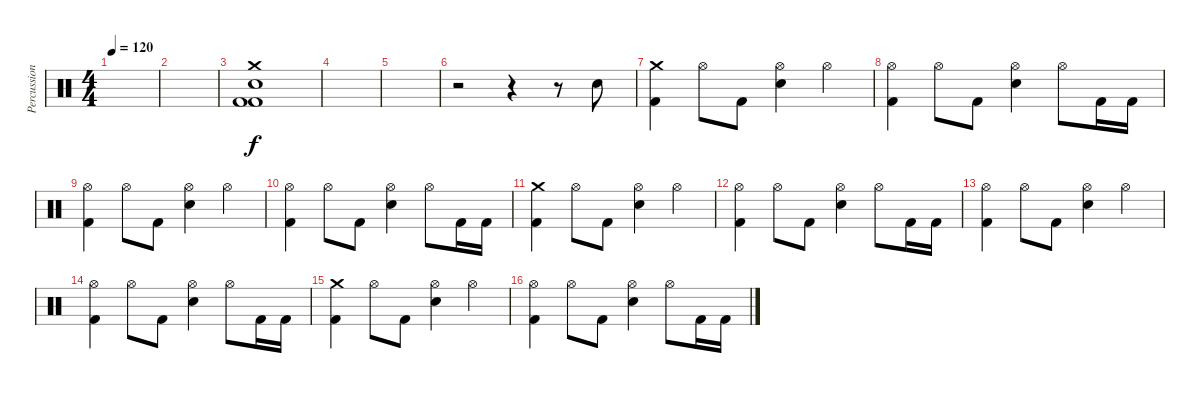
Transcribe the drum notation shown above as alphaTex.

\track ("Percussion" "Percussion") {instrument percussion}
\staff {score}
\articulation defaults
\ts (4 4)
\tempo 120
\clef neutral
\ks c
|
|
("Crash medium (hit)" "Kick (hit) 2" "Kick (hit) 2" "Electric Snare (hit)").1 |
|
|
r.2 r.4 r.8 "Electric Snare (hit)".8 |
("Crash medium (hit)" "Kick (hit) 2").4 "Hi-Hat (open)".8 "Kick (hit) 2".8 ("Hi-Hat (open)" "Electric Snare (hit)").4 "Hi-Hat (open)".4 |
("Hi-Hat (open)" "Kick (hit) 2").4 "Hi-Hat (open)".8 "Kick (hit) 2".8 ("Hi-Hat (open)" "Electric Snare (hit)").4 "Hi-Hat (open)".8 "Kick (hit) 2".16 "Kick (hit) 2".16 |
("Hi-Hat (open)" "Kick (hit) 2").4 "Hi-Hat (open)".8 "Kick (hit) 2".8 ("Hi-Hat (open)" "Electric Snare (hit)").4 "Hi-Hat (open)".4 |
("Hi-Hat (open)" "Kick (hit) 2").4 "Hi-Hat (open)".8 "Kick (hit) 2".8 ("Hi-Hat (open)" "Electric Snare (hit)").4 "Hi-Hat (open)".8 "Kick (hit) 2".16 "Kick (hit) 2".16 |
("Crash medium (hit)" "Kick (hit) 2").4 "Hi-Hat (open)".8 "Kick (hit) 2".8 ("Hi-Hat (open)" "Electric Snare (hit)").4 "Hi-Hat (open)".4 |
("Hi-Hat (open)" "Kick (hit) 2").4 "Hi-Hat (open)".8 "Kick (hit) 2".8 ("Hi-Hat (open)" "Electric Snare (hit)").4 "Hi-Hat (open)".8 "Kick (hit) 2".16 "Kick (hit) 2".16 |
("Hi-Hat (open)" "Kick (hit) 2").4 "Hi-Hat (open)".8 "Kick (hit) 2".8 ("Hi-Hat (open)" "Electric Snare (hit)").4 "Hi-Hat (open)".4 |
("Hi-Hat (open)" "Kick (hit) 2").4 "Hi-Hat (open)".8 "Kick (hit) 2".8 ("Hi-Hat (open)" "Electric Snare (hit)").4 "Hi-Hat (open)".8 "Kick (hit) 2".16 "Kick (hit) 2".16 |
("Crash medium (hit)" "Kick (hit) 2").4 "Hi-Hat (open)".8 "Kick (hit) 2".8 ("Hi-Hat (open)" "Electric Snare (hit)").4 "Hi-Hat (open)".4 |
("Hi-Hat (open)" "Kick (hit) 2").4 "Hi-Hat (open)".8 "Kick (hit) 2".8 ("Hi-Hat (open)" "Electric Snare (hit)").4 "Hi-Hat (open)".8 "Kick (hit) 2".16 "Kick (hit) 2".16
